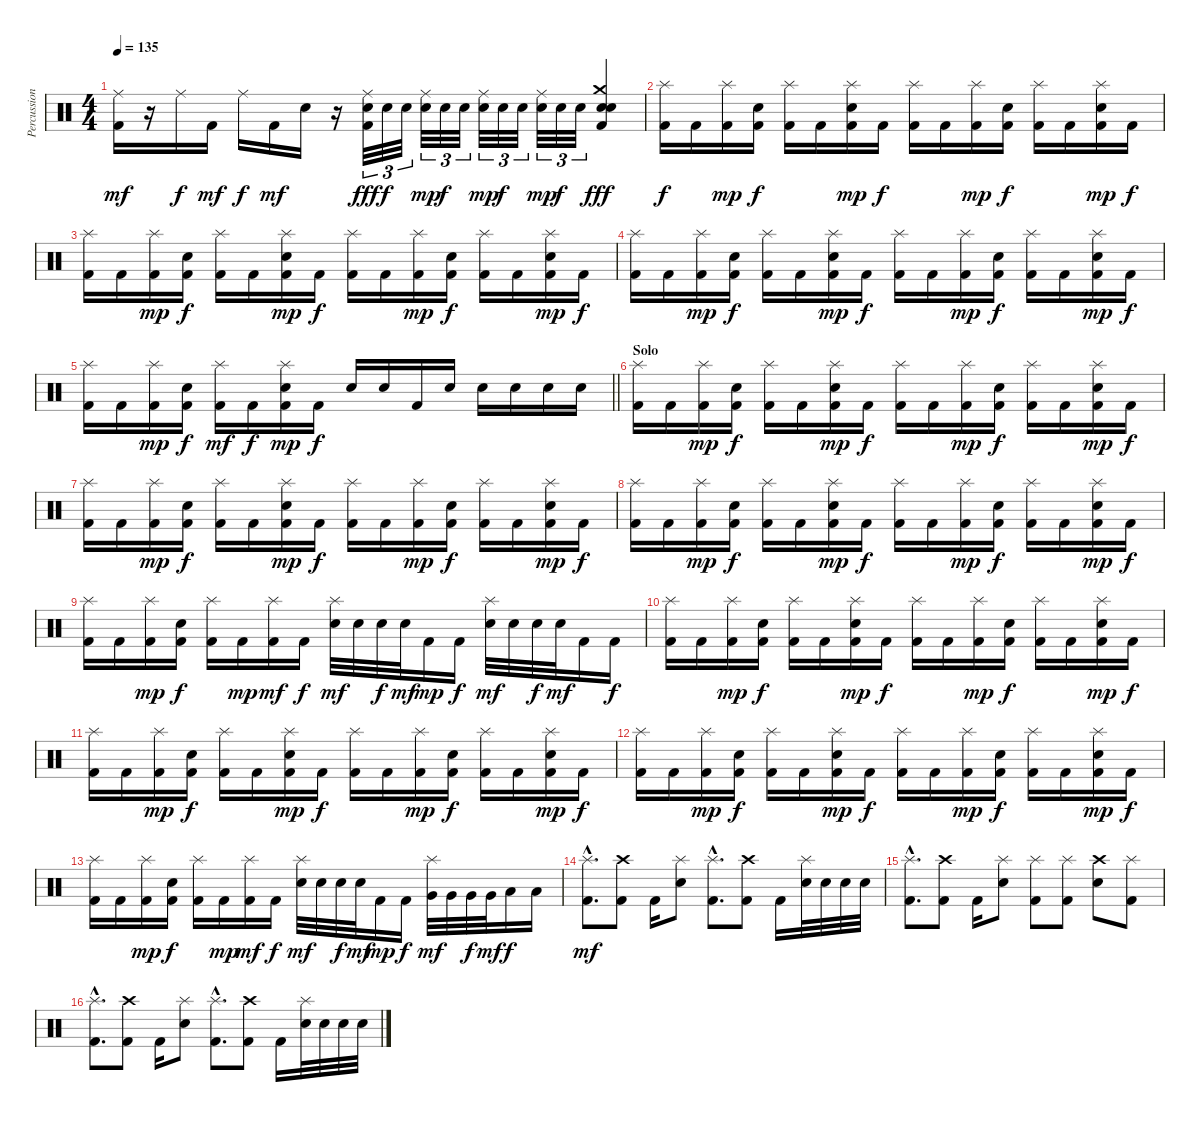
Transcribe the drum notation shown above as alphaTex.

\track ("Percussion" "Percussion") {instrument percussion}
\staff {score}
\articulation defaults
\ts (4 4)
\tempo 135
\clef neutral
\ks c
("Ride (middle)" "Kick (hit) 2").16{dy mf} r.16 "Ride (middle)".16{dy f} "Kick (hit) 2".16{dy mf} "Ride (middle)".16{dy f} "Kick (hit) 2".16{dy mf} "Electric Snare (hit)".16 r.16 ("Ride (middle)" "Electric Snare (hit)" "Kick (hit) 2").32{tu (3 2) dy fff} "Electric Snare (hit)".32{tu (3 2) dy f} "Electric Snare (hit)".32{tu (3 2)} ("Ride (middle)" "Electric Snare (hit)").32{tu (3 2) dy mp} "Electric Snare (hit)".32{tu (3 2) dy f} "Electric Snare (hit)".32{tu (3 2)} ("Ride (middle)" "Electric Snare (hit)").32{tu (3 2) dy mp} "Electric Snare (hit)".32{tu (3 2) dy f} "Electric Snare (hit)".32{tu (3 2)} ("Ride (middle)" "Electric Snare (hit)").32{tu (3 2) dy mp} "Electric Snare (hit)".32{tu (3 2) dy f} "Electric Snare (hit)".32{tu (3 2)} ("Crash medium (hit)" "Electric Snare (hit)" "Snare (hit) 2" "Kick (hit) 2").4{dy fff} |
("Splash (hit)" "Kick (hit) 2").16{dy f} "Kick (hit) 2".16 ("Splash (hit)" "Kick (hit) 2").16{dy mp} ("Electric Snare (hit)" "Kick (hit) 2").16{dy f} ("Splash (hit)" "Kick (hit) 2").16 "Kick (hit) 2".16 ("Splash (hit)" "Electric Snare (hit)" "Kick (hit) 2").16{dy mp} "Kick (hit) 2".16{dy f} ("Splash (hit)" "Kick (hit) 2").16 "Kick (hit) 2".16 ("Splash (hit)" "Kick (hit) 2").16{dy mp} ("Electric Snare (hit)" "Kick (hit) 2").16{dy f} ("Splash (hit)" "Kick (hit) 2").16 "Kick (hit) 2".16 ("Splash (hit)" "Electric Snare (hit)" "Kick (hit) 2").16{dy mp} "Kick (hit) 2".16{dy f} |
("Splash (hit)" "Kick (hit) 2").16 "Kick (hit) 2".16 ("Splash (hit)" "Kick (hit) 2").16{dy mp} ("Electric Snare (hit)" "Kick (hit) 2").16{dy f} ("Splash (hit)" "Kick (hit) 2").16 "Kick (hit) 2".16 ("Splash (hit)" "Electric Snare (hit)" "Kick (hit) 2").16{dy mp} "Kick (hit) 2".16{dy f} ("Splash (hit)" "Kick (hit) 2").16 "Kick (hit) 2".16 ("Splash (hit)" "Kick (hit) 2").16{dy mp} ("Electric Snare (hit)" "Kick (hit) 2").16{dy f} ("Splash (hit)" "Kick (hit) 2").16 "Kick (hit) 2".16 ("Splash (hit)" "Electric Snare (hit)" "Kick (hit) 2").16{dy mp} "Kick (hit) 2".16{dy f} |
("Splash (hit)" "Kick (hit) 2").16 "Kick (hit) 2".16 ("Splash (hit)" "Kick (hit) 2").16{dy mp} ("Electric Snare (hit)" "Kick (hit) 2").16{dy f} ("Splash (hit)" "Kick (hit) 2").16 "Kick (hit) 2".16 ("Splash (hit)" "Electric Snare (hit)" "Kick (hit) 2").16{dy mp} "Kick (hit) 2".16{dy f} ("Splash (hit)" "Kick (hit) 2").16 "Kick (hit) 2".16 ("Splash (hit)" "Kick (hit) 2").16{dy mp} ("Electric Snare (hit)" "Kick (hit) 2").16{dy f} ("Splash (hit)" "Kick (hit) 2").16 "Kick (hit) 2".16 ("Splash (hit)" "Electric Snare (hit)" "Kick (hit) 2").16{dy mp} "Kick (hit) 2".16{dy f} |
\barLineRight lightlight
("Splash (hit)" "Kick (hit) 2").16 "Kick (hit) 2".16 ("Splash (hit)" "Kick (hit) 2").16{dy mp} ("Electric Snare (hit)" "Kick (hit) 2").16{dy f} ("Splash (hit)" "Kick (hit) 2").16{dy mf} "Kick (hit) 2".16{dy f} ("Splash (hit)" "Electric Snare (hit)" "Kick (hit) 2").16{dy mp} "Kick (hit) 2".16{dy f} "Electric Snare (hit)".16 "Electric Snare (hit)".16 "Kick (hit) 2".16 "Electric Snare (hit)".16 "Electric Snare (hit)".16 "Electric Snare (hit)".16 "Electric Snare (hit)".16 "Electric Snare (hit)".16 |
\section ("" "Solo")
("Splash (hit)" "Kick (hit) 2").16 "Kick (hit) 2".16 ("Splash (hit)" "Kick (hit) 2").16{dy mp} ("Electric Snare (hit)" "Kick (hit) 2").16{dy f} ("Splash (hit)" "Kick (hit) 2").16 "Kick (hit) 2".16 ("Splash (hit)" "Electric Snare (hit)" "Kick (hit) 2").16{dy mp} "Kick (hit) 2".16{dy f} ("Splash (hit)" "Kick (hit) 2").16 "Kick (hit) 2".16 ("Splash (hit)" "Kick (hit) 2").16{dy mp} ("Electric Snare (hit)" "Kick (hit) 2").16{dy f} ("Splash (hit)" "Kick (hit) 2").16 "Kick (hit) 2".16 ("Splash (hit)" "Electric Snare (hit)" "Kick (hit) 2").16{dy mp} "Kick (hit) 2".16{dy f} |
("Splash (hit)" "Kick (hit) 2").16 "Kick (hit) 2".16 ("Splash (hit)" "Kick (hit) 2").16{dy mp} ("Electric Snare (hit)" "Kick (hit) 2").16{dy f} ("Splash (hit)" "Kick (hit) 2").16 "Kick (hit) 2".16 ("Splash (hit)" "Electric Snare (hit)" "Kick (hit) 2").16{dy mp} "Kick (hit) 2".16{dy f} ("Splash (hit)" "Kick (hit) 2").16 "Kick (hit) 2".16 ("Splash (hit)" "Kick (hit) 2").16{dy mp} ("Electric Snare (hit)" "Kick (hit) 2").16{dy f} ("Splash (hit)" "Kick (hit) 2").16 "Kick (hit) 2".16 ("Splash (hit)" "Electric Snare (hit)" "Kick (hit) 2").16{dy mp} "Kick (hit) 2".16{dy f} |
("Splash (hit)" "Kick (hit) 2").16 "Kick (hit) 2".16 ("Splash (hit)" "Kick (hit) 2").16{dy mp} ("Electric Snare (hit)" "Kick (hit) 2").16{dy f} ("Splash (hit)" "Kick (hit) 2").16 "Kick (hit) 2".16 ("Splash (hit)" "Electric Snare (hit)" "Kick (hit) 2").16{dy mp} "Kick (hit) 2".16{dy f} ("Splash (hit)" "Kick (hit) 2").16 "Kick (hit) 2".16 ("Splash (hit)" "Kick (hit) 2").16{dy mp} ("Electric Snare (hit)" "Kick (hit) 2").16{dy f} ("Splash (hit)" "Kick (hit) 2").16 "Kick (hit) 2".16 ("Splash (hit)" "Electric Snare (hit)" "Kick (hit) 2").16{dy mp} "Kick (hit) 2".16{dy f} |
("Splash (hit)" "Kick (hit) 2").16 "Kick (hit) 2".16 ("Splash (hit)" "Kick (hit) 2").16{dy mp} ("Electric Snare (hit)" "Kick (hit) 2").16{dy f} ("Splash (hit)" "Kick (hit) 2").16 "Kick (hit) 2".16{dy mp} ("Splash (hit)" "Kick (hit) 2").16{dy mf} "Kick (hit) 2".16{dy f} ("Splash (hit)" "Electric Snare (hit)").32{dy mf} "Electric Snare (hit)".32 "Electric Snare (hit)".32{dy f} "Electric Snare (hit)".32{dy mf} "Kick (hit) 2".16{dy mp} "Kick (hit) 2".16{dy f} ("Splash (hit)" "Electric Snare (hit)").32{dy mf} "Electric Snare (hit)".32 "Electric Snare (hit)".32{dy f} "Electric Snare (hit)".32{dy mf} "Kick (hit) 2".16 "Kick (hit) 2".16{dy f} |
("Splash (hit)" "Kick (hit) 2").16 "Kick (hit) 2".16 ("Splash (hit)" "Kick (hit) 2").16{dy mp} ("Electric Snare (hit)" "Kick (hit) 2").16{dy f} ("Splash (hit)" "Kick (hit) 2").16 "Kick (hit) 2".16 ("Splash (hit)" "Electric Snare (hit)" "Kick (hit) 2").16{dy mp} "Kick (hit) 2".16{dy f} ("Splash (hit)" "Kick (hit) 2").16 "Kick (hit) 2".16 ("Splash (hit)" "Kick (hit) 2").16{dy mp} ("Electric Snare (hit)" "Kick (hit) 2").16{dy f} ("Splash (hit)" "Kick (hit) 2").16 "Kick (hit) 2".16 ("Splash (hit)" "Electric Snare (hit)" "Kick (hit) 2").16{dy mp} "Kick (hit) 2".16{dy f} |
("Splash (hit)" "Kick (hit) 2").16 "Kick (hit) 2".16 ("Splash (hit)" "Kick (hit) 2").16{dy mp} ("Electric Snare (hit)" "Kick (hit) 2").16{dy f} ("Splash (hit)" "Kick (hit) 2").16 "Kick (hit) 2".16 ("Splash (hit)" "Electric Snare (hit)" "Kick (hit) 2").16{dy mp} "Kick (hit) 2".16{dy f} ("Splash (hit)" "Kick (hit) 2").16 "Kick (hit) 2".16 ("Splash (hit)" "Kick (hit) 2").16{dy mp} ("Electric Snare (hit)" "Kick (hit) 2").16{dy f} ("Splash (hit)" "Kick (hit) 2").16 "Kick (hit) 2".16 ("Splash (hit)" "Electric Snare (hit)" "Kick (hit) 2").16{dy mp} "Kick (hit) 2".16{dy f} |
("Splash (hit)" "Kick (hit) 2").16 "Kick (hit) 2".16 ("Splash (hit)" "Kick (hit) 2").16{dy mp} ("Electric Snare (hit)" "Kick (hit) 2").16{dy f} ("Splash (hit)" "Kick (hit) 2").16 "Kick (hit) 2".16 ("Splash (hit)" "Electric Snare (hit)" "Kick (hit) 2").16{dy mp} "Kick (hit) 2".16{dy f} ("Splash (hit)" "Kick (hit) 2").16 "Kick (hit) 2".16 ("Splash (hit)" "Kick (hit) 2").16{dy mp} ("Electric Snare (hit)" "Kick (hit) 2").16{dy f} ("Splash (hit)" "Kick (hit) 2").16 "Kick (hit) 2".16 ("Splash (hit)" "Electric Snare (hit)" "Kick (hit) 2").16{dy mp} "Kick (hit) 2".16{dy f} |
("Splash (hit)" "Kick (hit) 2").16 "Kick (hit) 2".16 ("Splash (hit)" "Kick (hit) 2").16{dy mp} ("Electric Snare (hit)" "Kick (hit) 2").16{dy f} ("Splash (hit)" "Kick (hit) 2").16 "Kick (hit) 2".16{dy mp} ("Splash (hit)" "Kick (hit) 2").16{dy mf} "Kick (hit) 2".16{dy f} ("Splash (hit)" "Electric Snare (hit)").32{dy mf} "Electric Snare (hit)".32 "Electric Snare (hit)".32{dy f} "Electric Snare (hit)".32{dy mf} "Kick (hit) 2".16{dy mp} "Kick (hit) 2".16{dy f} ("Splash (hit)" "Very Low Tom (hit)").32{dy mf} "Very Low Tom (hit)".32 "Very Low Tom (hit)".32{dy f} "Very Low Tom (hit)".32{dy mf} "Low Floor Tom (hit)".16{dy f} "Low Floor Tom (hit)".16 |
("Splash (hit)"{hac} "Kick (hit) 2"{hac}).8{d dy mf} ("Crash high (hit)" "Kick (hit) 2").8 "Kick (hit) 2".16 ("Splash (hit)" "Electric Snare (hit)").8 ("Splash (hit)"{hac} "Kick (hit) 2"{hac}).8{d} ("Crash high (hit)" "Kick (hit) 2").8 "Kick (hit) 2".16 ("Splash (hit)" "Electric Snare (hit)").32 "Electric Snare (hit)".32 "Electric Snare (hit)".32 "Electric Snare (hit)".32 |
("Splash (hit)"{hac} "Kick (hit) 2"{hac}).8{d} ("Crash high (hit)" "Kick (hit) 2").8 "Kick (hit) 2".16 ("Splash (hit)" "Electric Snare (hit)").8 ("Splash (hit)" "Kick (hit) 2").8 ("Splash (hit)" "Kick (hit) 2").8 ("Crash high (hit)" "Electric Snare (hit)").8 ("Splash (hit)" "Kick (hit) 2").8 |
("Splash (hit)"{hac} "Kick (hit) 2"{hac}).8{d} ("Crash high (hit)" "Kick (hit) 2").8 "Kick (hit) 2".16 ("Splash (hit)" "Electric Snare (hit)").8 ("Splash (hit)"{hac} "Kick (hit) 2"{hac}).8{d} ("Crash high (hit)" "Kick (hit) 2").8 "Kick (hit) 2".16 ("Splash (hit)" "Electric Snare (hit)").32 "Electric Snare (hit)".32 "Electric Snare (hit)".32 "Electric Snare (hit)".32
